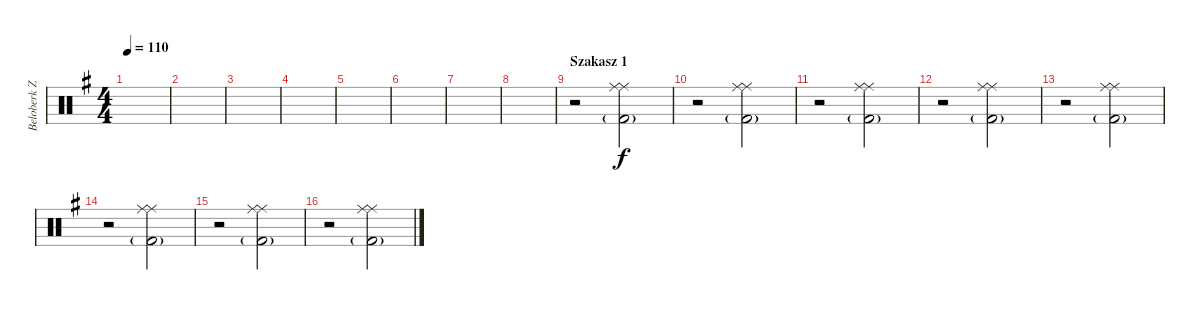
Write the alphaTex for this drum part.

\track ("Beloberk Zsolt" "Beloberk Z") {instrument percussion}
\staff {score}
\articulation defaults
\ts (4 4)
\tempo 110
\clef neutral
\ks eminor
|
|
|
|
|
|
|
|
\section ("" "Szakasz 1")
r.2 ("Ride (middle)" "Ride (middle)" "Kick (hit) 2"{g}).2 |
r.2 ("Ride (middle)" "Ride (middle)" "Kick (hit) 2"{g}).2 |
r.2 ("Ride (middle)" "Ride (middle)" "Kick (hit) 2"{g}).2 |
r.2 ("Ride (middle)" "Ride (middle)" "Kick (hit) 2"{g}).2 |
r.2 ("Ride (middle)" "Ride (middle)" "Kick (hit) 2"{g}).2 |
r.2 ("Ride (middle)" "Ride (middle)" "Kick (hit) 2"{g}).2 |
r.2 ("Ride (middle)" "Ride (middle)" "Kick (hit) 2"{g}).2 |
r.2 ("Ride (middle)" "Ride (middle)" "Kick (hit) 2"{g}).2
